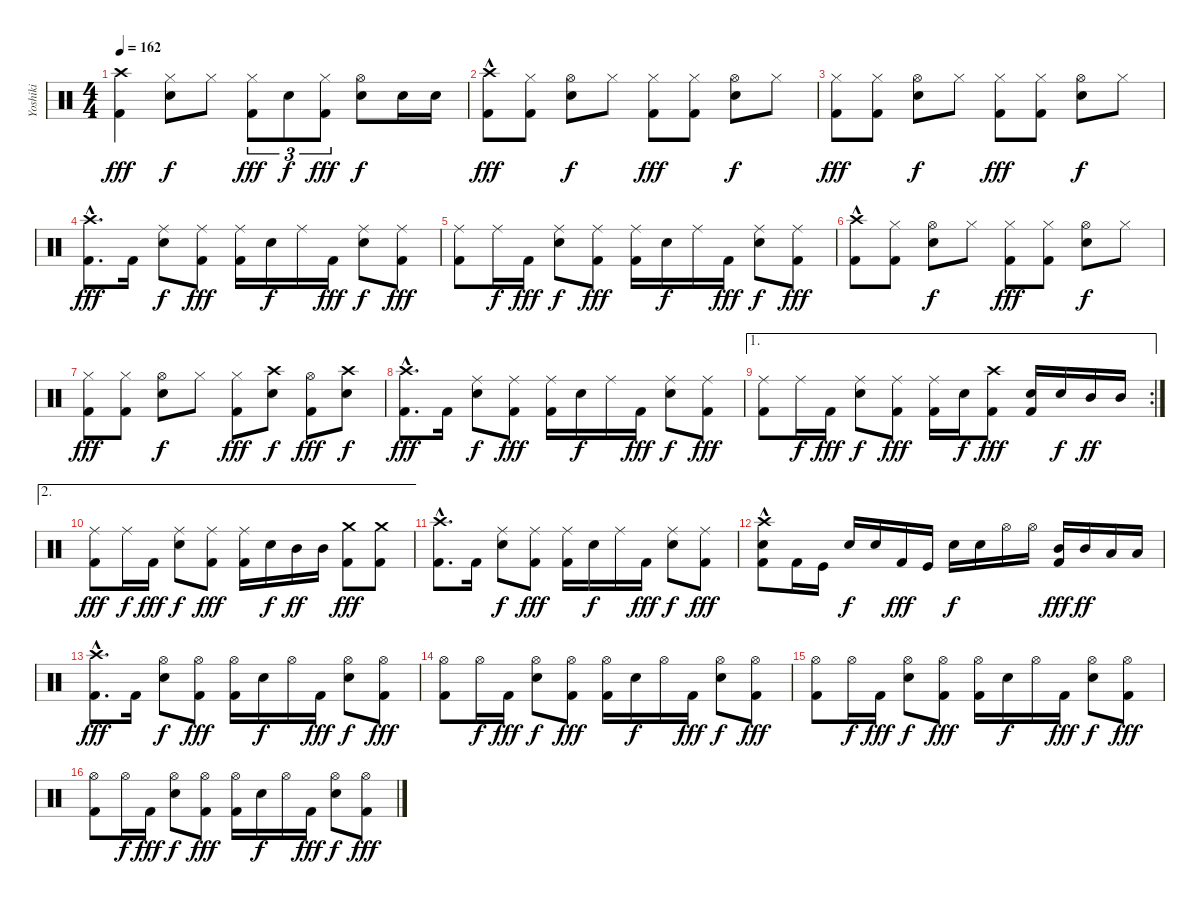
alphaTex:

\track ("Yoshiki" "Yoshiki") {instrument percussion}
\staff {score}
\articulation defaults
\ts (4 4)
\tempo 162
\clef neutral
\ks c
("Crash high (hit)" "Kick (hit) 2").4{dy fff} ("Hi-Hat (closed)" "Electric Snare (hit)").8{dy f} "Hi-Hat (closed)".8 ("Hi-Hat (closed)" "Kick (hit) 2").8{tu (3 2) dy fff} "Electric Snare (hit)".8{tu (3 2) dy f} ("Hi-Hat (closed)" "Kick (hit) 2").8{tu (3 2) dy fff} ("Hi-Hat (open)" "Electric Snare (hit)").8{dy f} "Electric Snare (hit)".16 "Electric Snare (hit)".16 |
("Crash high (hit)"{hac} "Kick (hit) 2").8{dy fff} ("Hi-Hat (closed)" "Kick (hit) 2").8 ("Hi-Hat (open)" "Electric Snare (hit)").8{dy f} "Hi-Hat (closed)".8 ("Hi-Hat (closed)" "Kick (hit) 2").8{dy fff} ("Hi-Hat (closed)" "Kick (hit) 2").8 ("Hi-Hat (open)" "Electric Snare (hit)").8{dy f} "Hi-Hat (closed)".8 |
("Hi-Hat (closed)" "Kick (hit) 2").8{dy fff} ("Hi-Hat (closed)" "Kick (hit) 2").8 ("Hi-Hat (open)" "Electric Snare (hit)").8{dy f} "Hi-Hat (closed)".8 ("Hi-Hat (closed)" "Kick (hit) 2").8{dy fff} ("Hi-Hat (closed)" "Kick (hit) 2").8 ("Hi-Hat (open)" "Electric Snare (hit)").8{dy f} "Hi-Hat (closed)".8 |
("Crash high (hit)"{hac} "Kick (hit) 2"{hac}).8{d dy fff} "Kick (hit) 2".16 ("Ride (middle)" "Electric Snare (hit)").8{dy f} ("Ride (middle)" "Kick (hit) 2").8{dy fff} ("Ride (middle)" "Kick (hit) 2").16 "Electric Snare (hit)".16{dy f} "Ride (middle)".16 "Kick (hit) 2".16{dy fff} ("Ride (middle)" "Electric Snare (hit)").8{dy f} ("Ride (middle)" "Kick (hit) 2").8{dy fff} |
("Ride (middle)" "Kick (hit) 2").8 "Ride (middle)".16{dy f} "Kick (hit) 2".16{dy fff} ("Ride (middle)" "Electric Snare (hit)").8{dy f} ("Ride (middle)" "Kick (hit) 2").8{dy fff} ("Ride (middle)" "Kick (hit) 2").16 "Electric Snare (hit)".16{dy f} "Ride (middle)".16 "Kick (hit) 2".16{dy fff} ("Ride (middle)" "Electric Snare (hit)").8{dy f} ("Ride (middle)" "Kick (hit) 2").8{dy fff} |
("Crash high (hit)"{hac} "Kick (hit) 2").8 ("Hi-Hat (closed)" "Kick (hit) 2").8 ("Hi-Hat (open)" "Electric Snare (hit)").8{dy f} "Hi-Hat (closed)".8 ("Hi-Hat (closed)" "Kick (hit) 2").8{dy fff} ("Hi-Hat (closed)" "Kick (hit) 2").8 ("Hi-Hat (open)" "Electric Snare (hit)").8{dy f} "Hi-Hat (closed)".8 |
("Hi-Hat (closed)" "Kick (hit) 2").8{dy fff} ("Hi-Hat (closed)" "Kick (hit) 2").8 ("Hi-Hat (open)" "Electric Snare (hit)").8{dy f} "Hi-Hat (closed)".8 ("Hi-Hat (closed)" "Kick (hit) 2").8{dy fff} ("Crash high (hit)" "Electric Snare (hit)").8{dy f} ("Hi-Hat (open)" "Kick (hit) 2").8{dy fff} ("Crash high (hit)" "Electric Snare (hit)").8{dy f} |
("Crash high (hit)"{hac} "Kick (hit) 2"{hac}).8{d dy fff} "Kick (hit) 2".16 ("Ride (middle)" "Electric Snare (hit)").8{dy f} ("Ride (middle)" "Kick (hit) 2").8{dy fff} ("Ride (middle)" "Kick (hit) 2").16 "Electric Snare (hit)".16{dy f} "Ride (middle)".16 "Kick (hit) 2".16{dy fff} ("Ride (middle)" "Electric Snare (hit)").8{dy f} ("Ride (middle)" "Kick (hit) 2").8{dy fff} |
\ae 1
\rc 2
("Ride (middle)" "Kick (hit) 2").8 "Ride (middle)".16{dy f} "Kick (hit) 2".16{dy fff} ("Ride (middle)" "Electric Snare (hit)").8{dy f} ("Ride (middle)" "Kick (hit) 2").8{dy fff} ("Ride (middle)" "Kick (hit) 2").16 "Electric Snare (hit)".16{dy f} ("Crash high (hit)" "Kick (hit) 2").8{dy fff} ("Electric Snare (hit)" "Kick (hit) 2").16 "Electric Snare (hit)".16{dy f} "Mid Tom (hit)".16{dy ff} "Mid Tom (hit)".16 |
\ae 2
("Ride (middle)" "Kick (hit) 2").8{dy fff} "Ride (middle)".16{dy f} "Kick (hit) 2".16{dy fff} ("Ride (middle)" "Electric Snare (hit)").8{dy f} ("Ride (middle)" "Kick (hit) 2").8{dy fff} ("Ride (middle)" "Kick (hit) 2").16 "Electric Snare (hit)".16{dy f} "Mid Tom (hit)".16{dy ff} "Mid Tom (hit)".16 ("Crash medium (hit)" "Kick (hit) 2").8{dy fff} ("Crash medium (hit)" "Kick (hit) 2").8 |
("Crash high (hit)"{hac} "Kick (hit) 2"{hac}).8{d} "Kick (hit) 2".16 ("Ride (middle)" "Electric Snare (hit)").8{dy f} ("Ride (middle)" "Kick (hit) 2").8{dy fff} ("Ride (middle)" "Kick (hit) 2").16 "Electric Snare (hit)".16{dy f} "Ride (middle)".16 "Kick (hit) 2".16{dy fff} ("Ride (middle)" "Electric Snare (hit)").8{dy f} ("Ride (middle)" "Kick (hit) 2").8{dy fff} |
("Crash high (hit)"{hac} "Electric Snare (hit)" "Kick (hit) 2").8 "Kick (hit) 2".16 "Kick (hit)".16 "Electric Snare (hit)".16{dy f} "Electric Snare (hit)".16 "Kick (hit) 2".16{dy fff} "Kick (hit)".16 "Electric Snare (hit)".16{dy f} "Electric Snare (hit)".16 "Hi-Hat (open)".16 "Hi-Hat (open)".16 ("Mid Tom (hit)" "Kick (hit) 2").16{dy fff} "Mid Tom (hit)".16{dy ff} "Low Tom (hit)".16 "Low Tom (hit)".16 |
("Crash high (hit)"{hac} "Kick (hit) 2"{hac}).8{d dy fff} "Kick (hit) 2".16 ("Hi-Hat (open)" "Electric Snare (hit)").8{dy f} ("Hi-Hat (open)" "Kick (hit) 2").8{dy fff} ("Hi-Hat (open)" "Kick (hit) 2").16 "Electric Snare (hit)".16{dy f} "Hi-Hat (open)".16 "Kick (hit) 2".16{dy fff} ("Hi-Hat (open)" "Electric Snare (hit)").8{dy f} ("Hi-Hat (open)" "Kick (hit) 2").8{dy fff} |
("Hi-Hat (open)" "Kick (hit) 2").8 "Hi-Hat (open)".16{dy f} "Kick (hit) 2".16{dy fff} ("Hi-Hat (open)" "Electric Snare (hit)").8{dy f} ("Hi-Hat (open)" "Kick (hit) 2").8{dy fff} ("Hi-Hat (open)" "Kick (hit) 2").16 "Electric Snare (hit)".16{dy f} "Hi-Hat (open)".16 "Kick (hit) 2".16{dy fff} ("Hi-Hat (open)" "Electric Snare (hit)").8{dy f} ("Hi-Hat (open)" "Kick (hit) 2").8{dy fff} |
("Hi-Hat (open)" "Kick (hit) 2").8 "Hi-Hat (open)".16{dy f} "Kick (hit) 2".16{dy fff} ("Hi-Hat (open)" "Electric Snare (hit)").8{dy f} ("Hi-Hat (open)" "Kick (hit) 2").8{dy fff} ("Hi-Hat (open)" "Kick (hit) 2").16 "Electric Snare (hit)".16{dy f} "Hi-Hat (open)".16 "Kick (hit) 2".16{dy fff} ("Hi-Hat (open)" "Electric Snare (hit)").8{dy f} ("Hi-Hat (open)" "Kick (hit) 2").8{dy fff} |
("Hi-Hat (open)" "Kick (hit) 2").8 "Hi-Hat (open)".16{dy f} "Kick (hit) 2".16{dy fff} ("Hi-Hat (open)" "Electric Snare (hit)").8{dy f} ("Hi-Hat (open)" "Kick (hit) 2").8{dy fff} ("Hi-Hat (open)" "Kick (hit) 2").16 "Electric Snare (hit)".16{dy f} "Hi-Hat (open)".16 "Kick (hit) 2".16{dy fff} ("Hi-Hat (open)" "Electric Snare (hit)").8{dy f} ("Hi-Hat (open)" "Kick (hit) 2").8{dy fff}
